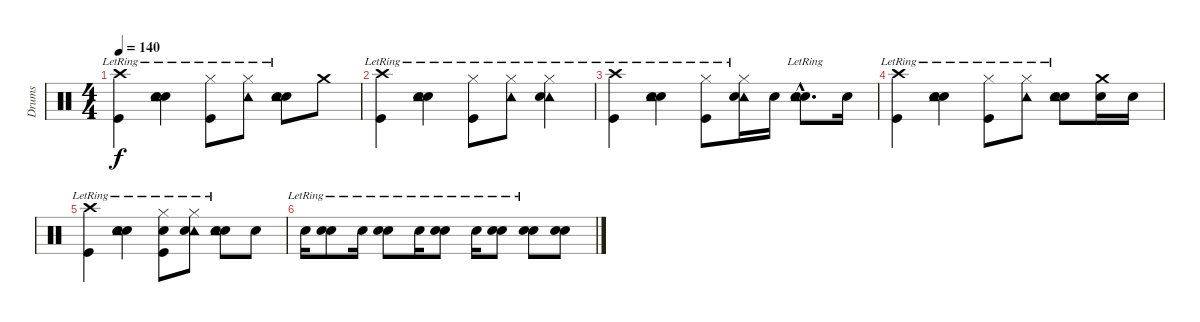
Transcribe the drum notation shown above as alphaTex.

\track ("Drums" "Drums") {instrument percussion}
\staff {score}
\articulation defaults
\ts (4 4)
\tempo 140
\clef neutral
\ks c
("Crash high (hit)"{lr} "Kick (hit)"{lr}).4{dy f} ("Electric Snare (hit)"{lr} "Tambourine (hit)"{lr} "Snare (hit) 2"{lr}).4 ("Hi-Hat (closed)"{lr} "Kick (hit)"{lr}).8 ("Hi-Hat (closed)"{lr} "Tambourine (hit)").8 ("Electric Snare (hit)"{lr} "Tambourine (hit)"{lr} "Snare (hit) 2"{lr}).8 "Crash medium (hit)".8 |
("Crash high (hit)"{lr} "Kick (hit)"{lr}).4 ("Electric Snare (hit)"{lr} "Tambourine (hit)"{lr} "Snare (hit) 2"{lr}).4 ("Hi-Hat (closed)"{lr} "Kick (hit)"{lr}).8 ("Hi-Hat (closed)"{lr} "Tambourine (hit)").8 ("Hi-Hat (closed)"{lr} "Tambourine (hit)"{lr} "Snare (hit) 2"{lr}).4 |
("Crash high (hit)"{lr} "Kick (hit)"{lr}).4 ("Electric Snare (hit)"{lr} "Tambourine (hit)"{lr} "Snare (hit) 2"{lr}).4 ("Hi-Hat (closed)"{lr} "Kick (hit)"{lr}).8 ("Hi-Hat (closed)"{lr} "Tambourine (hit)" "Snare (hit) 2").16 "Snare (hit) 2".16 ("Electric Snare (hit)"{hac lr} "Tambourine (hit)"{hac lr} "Snare (hit) 2"{hac lr}).8{d} "Snare (hit) 2".16 |
("Crash high (hit)" "Kick (hit)"{lr}).4 ("Electric Snare (hit)"{lr} "Tambourine (hit)"{lr} "Snare (hit) 2"{lr}).4 ("Hi-Hat (closed)"{lr} "Kick (hit)"{lr}).8 ("Hi-Hat (closed)"{lr} "Tambourine (hit)").8 ("Electric Snare (hit)"{lr} "Tambourine (hit)"{lr} "Snare (hit) 2"{lr}).8 ("Crash medium (hit)" "Snare (hit) 2").16 "Snare (hit) 2".16 |
("Crash high (hit)"{lr} "Kick (hit)"{lr}).4 ("Electric Snare (hit)"{lr} "Tambourine (hit)"{lr} "Snare (hit) 2"{lr}).4 ("Hi-Hat (closed)"{lr} "Kick (hit)"{lr} "Snare (hit) 2").8 ("Hi-Hat (closed)"{lr} "Tambourine (hit)" "Snare (hit) 2").8 ("Electric Snare (hit)"{lr} "Tambourine (hit)"{lr} "Snare (hit) 2").8 "Snare (hit) 2".8 |
"Snare (hit) 2"{lr}.16 ("Snare (hit) 2"{lr} "Electric Snare (hit)"{lr}).8 "Snare (hit) 2"{lr}.16 ("Snare (hit) 2"{lr} "Electric Snare (hit)"{lr}).8 "Snare (hit) 2"{lr}.16 ("Snare (hit) 2"{lr} "Electric Snare (hit)"{lr}).8 "Snare (hit) 2"{lr}.16 ("Snare (hit) 2"{lr} "Electric Snare (hit)"{lr}).8 ("Snare (hit) 2"{lr} "Electric Snare (hit)"{lr}).8 ("Snare (hit) 2" "Electric Snare (hit)").8
